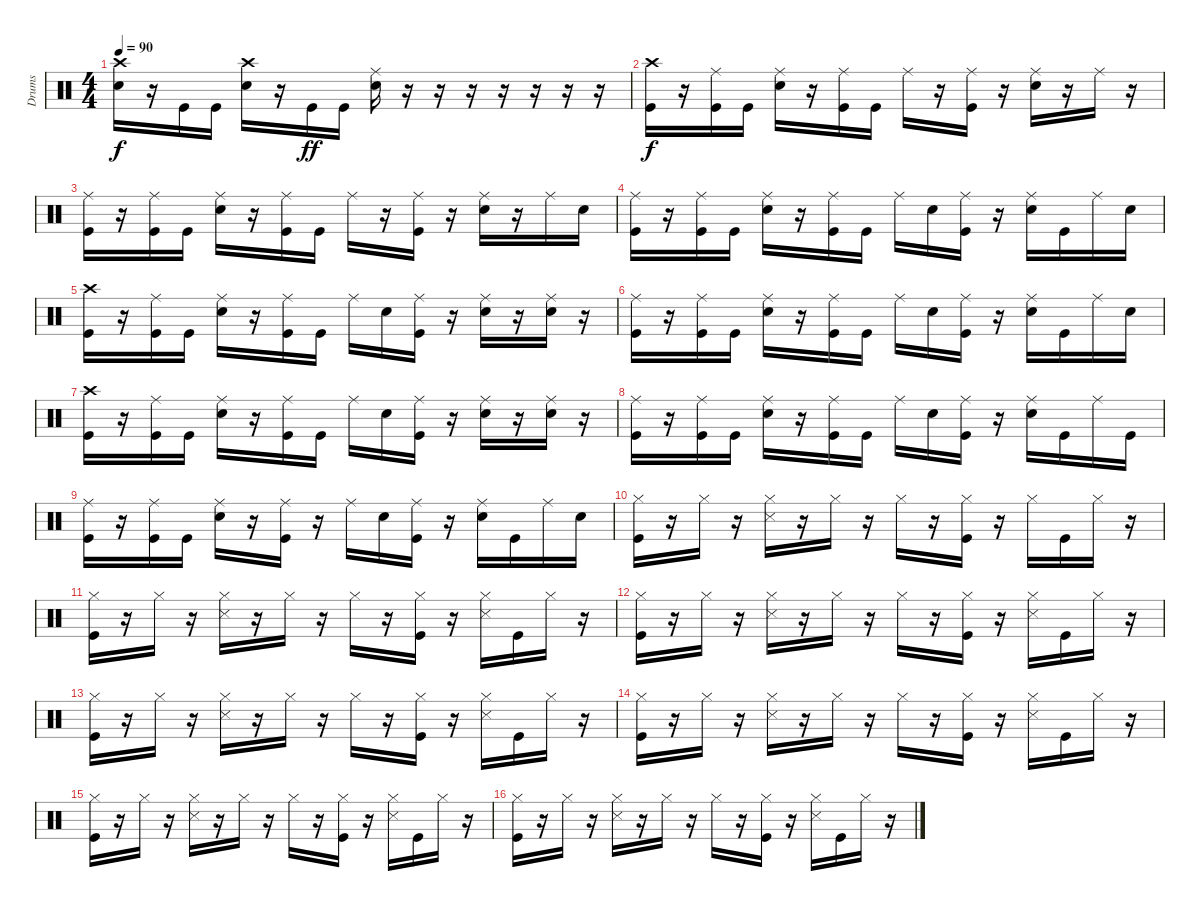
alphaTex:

\track ("Drums" "Drums") {instrument percussion}
\staff {score}
\articulation defaults
\ts (4 4)
\tempo 90
\clef neutral
\ks c
("Crash high (hit)" "Snare (hit) 2").16{dy f} r.16 "Kick (hit)".16 "Kick (hit)".16 ("Crash high (hit)" "Snare (hit) 2").16 r.16 "Kick (hit)".16{dy ff} "Kick (hit)".16 ("Ride (middle)" "Snare (hit) 2").16 r.16 r.16 r.16 r.16 r.16 r.16 r.16 |
("Crash high (hit)" "Kick (hit)").16{dy f} r.16 ("Ride (middle)" "Kick (hit)").16 "Kick (hit)".16 ("Ride (middle)" "Snare (hit) 2").16 r.16 ("Ride (middle)" "Kick (hit)").16 "Kick (hit)".16 "Ride (middle)".16 r.16 ("Ride (middle)" "Kick (hit)").16 r.16 ("Ride (middle)" "Snare (hit) 2").16 r.16 "Ride (middle)".16 r.16 |
("Ride (middle)" "Kick (hit)").16 r.16 ("Ride (middle)" "Kick (hit)").16 "Kick (hit)".16 ("Ride (middle)" "Snare (hit) 2").16 r.16 ("Ride (middle)" "Kick (hit)").16 "Kick (hit)".16 "Ride (middle)".16 r.16 ("Ride (middle)" "Kick (hit)").16 r.16 ("Ride (middle)" "Snare (hit) 2").16 r.16 "Ride (middle)".16 "Snare (hit) 2".16 |
("Ride (middle)" "Kick (hit)").16 r.16 ("Ride (middle)" "Kick (hit)").16 "Kick (hit)".16 ("Ride (middle)" "Snare (hit) 2").16 r.16 ("Ride (middle)" "Kick (hit)").16 "Kick (hit)".16 "Ride (middle)".16 "Snare (hit) 2".16 ("Ride (middle)" "Kick (hit)").16 r.16 ("Ride (middle)" "Snare (hit) 2").16 "Kick (hit)".16 "Ride (middle)".16 "Snare (hit) 2".16 |
("Crash high (hit)" "Kick (hit)").16 r.16 ("Ride (middle)" "Kick (hit)").16 "Kick (hit)".16 ("Ride (middle)" "Snare (hit) 2").16 r.16 ("Ride (middle)" "Kick (hit)").16 "Kick (hit)".16 "Ride (middle)".16 "Snare (hit) 2".16 ("Ride (middle)" "Kick (hit)").16 r.16 ("Ride (middle)" "Snare (hit) 2").16 r.16 ("Ride (middle)" "Snare (hit) 2").16 r.16 |
("Ride (middle)" "Kick (hit)").16 r.16 ("Ride (middle)" "Kick (hit)").16 "Kick (hit)".16 ("Ride (middle)" "Snare (hit) 2").16 r.16 ("Ride (middle)" "Kick (hit)").16 "Kick (hit)".16 "Ride (middle)".16 "Snare (hit) 2".16 ("Ride (middle)" "Kick (hit)").16 r.16 ("Ride (middle)" "Snare (hit) 2").16 "Kick (hit)".16 "Ride (middle)".16 "Snare (hit) 2".16 |
("Crash high (hit)" "Kick (hit)").16 r.16 ("Ride (middle)" "Kick (hit)").16 "Kick (hit)".16 ("Ride (middle)" "Snare (hit) 2").16 r.16 ("Ride (middle)" "Kick (hit)").16 "Kick (hit)".16 "Ride (middle)".16 "Snare (hit) 2".16 ("Ride (middle)" "Kick (hit)").16 r.16 ("Ride (middle)" "Snare (hit) 2").16 r.16 ("Ride (middle)" "Snare (hit) 2").16 r.16 |
("Ride (middle)" "Kick (hit)").16 r.16 ("Ride (middle)" "Kick (hit)").16 "Kick (hit)".16 ("Ride (middle)" "Snare (hit) 2").16 r.16 ("Ride (middle)" "Kick (hit)").16 "Kick (hit)".16 "Ride (middle)".16 "Snare (hit) 2".16 ("Ride (middle)" "Kick (hit)").16 r.16 ("Ride (middle)" "Snare (hit) 2").16 "Kick (hit)".16 "Ride (middle)".16 "Kick (hit)".16 |
("Ride (middle)" "Kick (hit)").16 r.16 ("Ride (middle)" "Kick (hit)").16 "Kick (hit)".16 ("Ride (middle)" "Snare (hit) 2").16 r.16 ("Ride (middle)" "Kick (hit)").16 r.16 "Ride (middle)".16 "Snare (hit) 2".16 ("Ride (middle)" "Kick (hit)").16 r.16 ("Ride (middle)" "Snare (hit) 2").16 "Kick (hit)".16 "Ride (middle)".16 "Snare (hit) 2".16 |
("Hi-Hat (closed)" "Kick (hit)").16 r.16 "Hi-Hat (closed)".16 r.16 ("Hi-Hat (closed)" "Snare (side stick) 3").16 r.16 "Hi-Hat (closed)".16 r.16 "Hi-Hat (closed)".16 r.16 ("Hi-Hat (closed)" "Kick (hit)").16 r.16 "Hi-Hat (closed)".16 "Kick (hit)".16 "Hi-Hat (closed)".16 r.16 |
("Hi-Hat (closed)" "Kick (hit)").16 r.16 "Hi-Hat (closed)".16 r.16 ("Hi-Hat (closed)" "Snare (side stick) 3").16 r.16 "Hi-Hat (closed)".16 r.16 "Hi-Hat (closed)".16 r.16 ("Hi-Hat (closed)" "Kick (hit)").16 r.16 ("Hi-Hat (closed)" "Snare (side stick) 3").16 "Kick (hit)".16 "Hi-Hat (closed)".16 r.16 |
("Hi-Hat (closed)" "Kick (hit)").16 r.16 "Hi-Hat (closed)".16 r.16 ("Hi-Hat (closed)" "Snare (side stick) 3").16 r.16 "Hi-Hat (closed)".16 r.16 "Hi-Hat (closed)".16 r.16 ("Hi-Hat (closed)" "Kick (hit)").16 r.16 ("Hi-Hat (closed)" "Snare (side stick) 3").16 "Kick (hit)".16 "Hi-Hat (closed)".16 r.16 |
("Hi-Hat (closed)" "Kick (hit)").16 r.16 "Hi-Hat (closed)".16 r.16 ("Hi-Hat (closed)" "Snare (side stick) 3").16 r.16 "Hi-Hat (closed)".16 r.16 "Hi-Hat (closed)".16 r.16 ("Hi-Hat (closed)" "Kick (hit)").16 r.16 ("Hi-Hat (closed)" "Snare (side stick) 3").16 "Kick (hit)".16 "Hi-Hat (closed)".16 r.16 |
("Hi-Hat (closed)" "Kick (hit)").16 r.16 "Hi-Hat (closed)".16 r.16 ("Hi-Hat (closed)" "Snare (side stick) 3").16 r.16 "Hi-Hat (closed)".16 r.16 "Hi-Hat (closed)".16 r.16 ("Hi-Hat (closed)" "Kick (hit)").16 r.16 ("Hi-Hat (closed)" "Snare (side stick) 3").16 "Kick (hit)".16 "Hi-Hat (closed)".16 r.16 |
("Hi-Hat (closed)" "Kick (hit)").16 r.16 "Hi-Hat (closed)".16 r.16 ("Hi-Hat (closed)" "Snare (side stick) 3").16 r.16 "Hi-Hat (closed)".16 r.16 "Hi-Hat (closed)".16 r.16 ("Hi-Hat (closed)" "Kick (hit)").16 r.16 ("Hi-Hat (closed)" "Snare (side stick) 3").16 "Kick (hit)".16 "Hi-Hat (closed)".16 r.16 |
("Hi-Hat (closed)" "Kick (hit)").16 r.16 "Hi-Hat (closed)".16 r.16 ("Hi-Hat (closed)" "Snare (side stick) 3").16 r.16 "Hi-Hat (closed)".16 r.16 "Hi-Hat (closed)".16 r.16 ("Hi-Hat (closed)" "Kick (hit)").16 r.16 ("Hi-Hat (closed)" "Snare (side stick) 3").16 "Kick (hit)".16 "Hi-Hat (closed)".16 r.16
